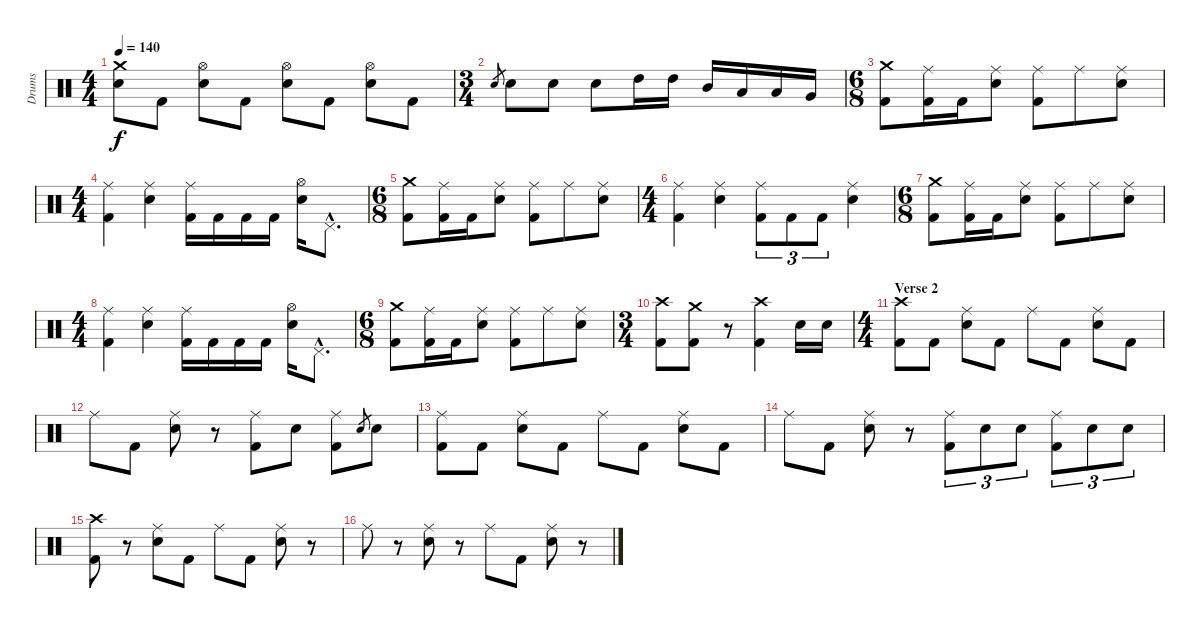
\track ("Drums" "Drums") {instrument percussion}
\staff {score}
\articulation defaults
\ts (4 4)
\tempo 140
\clef neutral
\ks c
("Crash medium (hit)" "Snare (hit) 2").8{dy f} "Kick (hit) 2".8 ("Hi-Hat (open)" "Snare (hit) 2").8 "Kick (hit) 2".8 ("Hi-Hat (open)" "Snare (hit) 2").8 "Kick (hit) 2".8 ("Hi-Hat (open)" "Snare (hit) 2").8 "Kick (hit) 2".8 |
\ts (3 4)
"Snare (hit) 2".8{gr} "Snare (hit) 2".8 "Snare (hit) 2".8 "Snare (hit) 2".8 "High Tom (hit)".16 "High Tom (hit)".16 "Mid Tom (hit)".16 "Low Tom (hit)".16 "Low Tom (hit)".16 "Very Low Tom (hit)".16 |
\ts (6 8)
("Crash medium (hit)" "Kick (hit) 2").8 ("Ride (middle)" "Kick (hit) 2").16 "Kick (hit) 2".16 ("Ride (middle)" "Snare (hit) 2").8 ("Ride (middle)" "Kick (hit) 2").8 "Ride (middle)".8 ("Ride (middle)" "Snare (hit) 2").8 |
\ts (4 4)
("Ride (middle)" "Kick (hit) 2").4 ("Ride (middle)" "Snare (hit) 2").4 ("Ride (middle)" "Kick (hit) 2").16 "Kick (hit) 2".16 "Kick (hit) 2".16 "Kick (hit) 2".16 ("Hi-Hat (open)" "Snare (hit) 2").16 "Pedal Hi-Hat (hit)"{hac}.8{d} |
\ts (6 8)
("Crash medium (hit)" "Kick (hit) 2").8 ("Ride (middle)" "Kick (hit) 2").16 "Kick (hit) 2".16 ("Ride (middle)" "Snare (hit) 2").8 ("Ride (middle)" "Kick (hit) 2").8 "Ride (middle)".8 ("Ride (middle)" "Snare (hit) 2").8 |
\ts (4 4)
("Ride (middle)" "Kick (hit) 2").4 ("Ride (middle)" "Snare (hit) 2").4 ("Ride (middle)" "Kick (hit) 2").8{tu (3 2)} "Kick (hit) 2".8{tu (3 2)} "Kick (hit) 2".8{tu (3 2)} ("Ride (middle)" "Snare (hit) 2").4 |
\ts (6 8)
("Crash medium (hit)" "Kick (hit) 2").8 ("Ride (middle)" "Kick (hit) 2").16 "Kick (hit) 2".16 ("Ride (middle)" "Snare (hit) 2").8 ("Ride (middle)" "Kick (hit) 2").8 "Ride (middle)".8 ("Ride (middle)" "Snare (hit) 2").8 |
\ts (4 4)
("Ride (middle)" "Kick (hit) 2").4 ("Ride (middle)" "Snare (hit) 2").4 ("Ride (middle)" "Kick (hit) 2").16 "Kick (hit) 2".16 "Kick (hit) 2".16 "Kick (hit) 2".16 ("Hi-Hat (open)" "Snare (hit) 2").16 "Pedal Hi-Hat (hit)"{hac}.8{d} |
\ts (6 8)
("Crash medium (hit)" "Kick (hit) 2").8 ("Ride (middle)" "Kick (hit) 2").16 "Kick (hit) 2".16 ("Ride (middle)" "Snare (hit) 2").8 ("Ride (middle)" "Kick (hit) 2").8 "Ride (middle)".8 ("Ride (middle)" "Snare (hit) 2").8 |
\ts (3 4)
("Crash high (hit)" "Kick (hit) 2").8 ("Crash medium (hit)" "Kick (hit) 2").8 r.8 ("Crash high (hit)" "Kick (hit) 2").4 "Snare (hit) 2".16 "Snare (hit) 2".16 |
\ts (4 4)
\section ("" "Verse 2")
("Crash high (hit)" "Kick (hit) 2").8 "Kick (hit) 2".8 ("Ride (middle)" "Snare (hit) 2").8 "Kick (hit) 2".8 "Ride (middle)".8 "Kick (hit) 2".8 ("Ride (middle)" "Snare (hit) 2").8 "Kick (hit) 2".8 |
"Ride (middle)".8 "Kick (hit) 2".8 ("Ride (middle)" "Snare (hit) 2").8 r.8 ("Ride (middle)" "Kick (hit) 2").8 "Snare (hit) 2".8 ("Ride (middle)" "Kick (hit) 2").8 "Snare (hit) 2".8{gr} "Snare (hit) 2".8 |
("Ride (middle)" "Kick (hit) 2").8 "Kick (hit) 2".8 ("Ride (middle)" "Snare (hit) 2").8 "Kick (hit) 2".8 "Ride (middle)".8 "Kick (hit) 2".8 ("Ride (middle)" "Snare (hit) 2").8 "Kick (hit) 2".8 |
"Ride (middle)".8 "Kick (hit) 2".8 ("Ride (middle)" "Snare (hit) 2").8 r.8 ("Ride (middle)" "Kick (hit) 2").8{tu (3 2)} "Snare (hit) 2".8{tu (3 2)} "Snare (hit) 2".8{tu (3 2)} ("Ride (middle)" "Kick (hit) 2").8{tu (3 2)} "Snare (hit) 2".8{tu (3 2)} "Snare (hit) 2".8{tu (3 2)} |
("Crash high (hit)" "Kick (hit) 2").8 r.8 ("Ride (middle)" "Snare (hit) 2").8 "Kick (hit) 2".8 "Ride (middle)".8 "Kick (hit) 2".8 ("Ride (middle)" "Snare (hit) 2").8 r.8 |
"Ride (middle)".8 r.8 ("Ride (middle)" "Snare (hit) 2").8 r.8 "Ride (middle)".8 "Kick (hit) 2".8 ("Ride (middle)" "Snare (hit) 2").8 r.8
